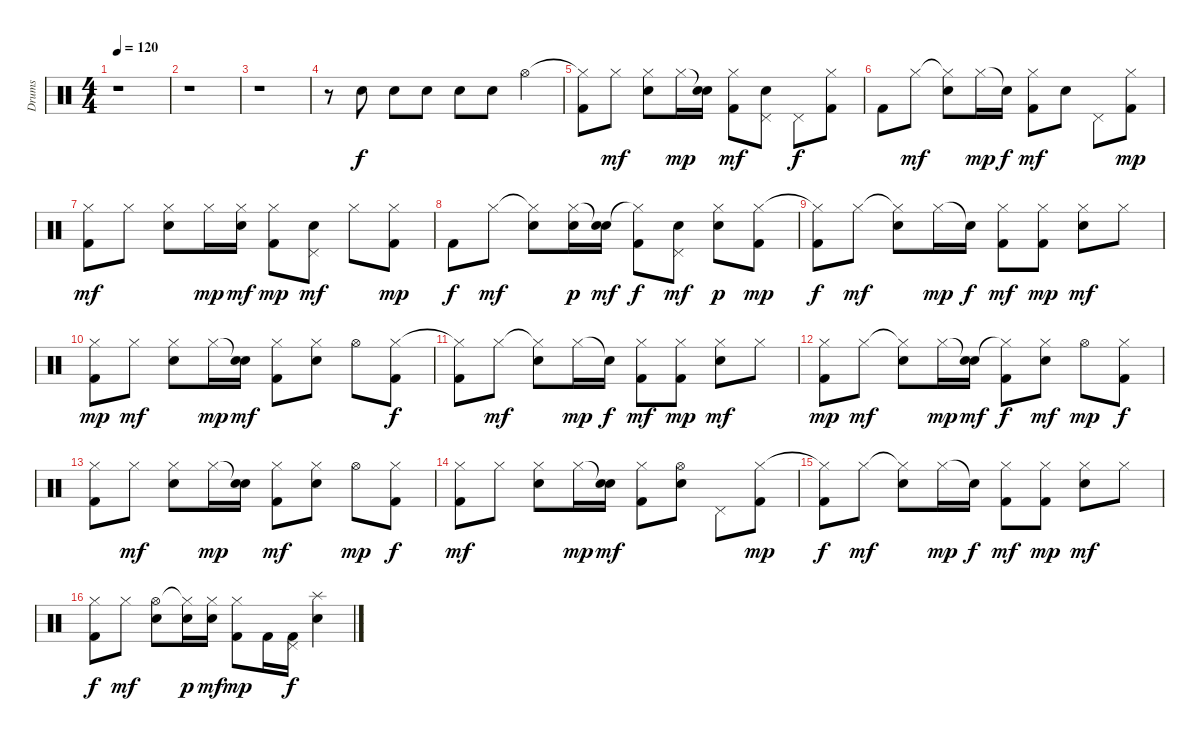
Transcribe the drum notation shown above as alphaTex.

\track ("Drums" "Drums") {instrument percussion}
\staff {score}
\articulation defaults
\ts (4 4)
\tempo 120
\clef neutral
\ks c
r.1{dy f} |
r.1 |
r.1 |
r.8 "Snare (hit) 2".8 "Snare (hit) 2".8 "Snare (hit) 2".8 "Snare (hit) 2".8 "Snare (hit) 2".8 "Hi-Hat (open)".4 |
("Hi-Hat (closed)"{t} "Kick (hit) 2").8 "Hi-Hat (closed)".8{dy mf} ("Hi-Hat (closed)" "Snare (hit) 2").8 "Hi-Hat (closed)".16{dy mp} ("Snare (hit)"{t} "Snare (hit) 2").16 ("Hi-Hat (closed)" "Kick (hit) 2").8{dy mf} ("Pedal Hi-Hat (hit)" "Snare (hit) 2").8 "Pedal Hi-Hat (hit)".8{dy f} ("Hi-Hat (closed)" "Kick (hit) 2").8 |
"Kick (hit) 2".8 "Hi-Hat (closed)".8{dy mf} ("Hi-Hat (closed)"{t} "Snare (hit) 2").8 "Hi-Hat (closed)".16{dy mp} "Snare (hit)"{t}.16{dy f} ("Hi-Hat (closed)" "Kick (hit) 2").8{dy mf} "Snare (hit) 2".8 "Pedal Hi-Hat (hit)".8 ("Hi-Hat (closed)" "Kick (hit) 2").8{dy mp} |
("Hi-Hat (closed)" "Kick (hit) 2").8{dy mf} "Hi-Hat (closed)".8 ("Hi-Hat (closed)" "Snare (hit) 2").8 "Hi-Hat (closed)".16{dy mp} ("Hi-Hat (closed)" "Snare (hit) 2").16{dy mf} ("Hi-Hat (closed)" "Kick (hit) 2").8{dy mp} ("Pedal Hi-Hat (hit)" "Snare (hit) 2").8{dy mf} "Hi-Hat (closed)".8 ("Hi-Hat (closed)" "Kick (hit) 2").8{dy mp} |
"Kick (hit) 2".8{dy f} "Hi-Hat (closed)".8{dy mf} ("Hi-Hat (closed)"{t} "Snare (hit) 2").8 ("Hi-Hat (closed)" "Snare (hit) 2").16{dy p} ("Snare (hit)"{t} "Snare (hit) 2").16{dy mf} ("Hi-Hat (closed)"{t} "Kick (hit) 2").8{dy f} ("Pedal Hi-Hat (hit)" "Snare (hit) 2").8{dy mf} ("Hi-Hat (closed)" "Snare (hit) 2").8{dy p} ("Hi-Hat (closed)" "Kick (hit) 2").8{dy mp} |
("Hi-Hat (closed)"{t} "Kick (hit) 2").8{dy f} "Hi-Hat (closed)".8{dy mf} ("Hi-Hat (closed)"{t} "Snare (hit) 2").8 "Hi-Hat (closed)".16{dy mp} "Snare (hit)"{t}.16{dy f} ("Hi-Hat (closed)" "Kick (hit) 2").8{dy mf} ("Hi-Hat (closed)" "Kick (hit) 2").8{dy mp} ("Hi-Hat (closed)" "Snare (hit) 2").8{dy mf} "Hi-Hat (closed)".8 |
("Hi-Hat (closed)" "Kick (hit) 2").8{dy mp} "Hi-Hat (closed)".8{dy mf} ("Hi-Hat (closed)" "Snare (hit) 2").8 "Hi-Hat (closed)".16{dy mp} ("Snare (hit)"{t} "Snare (hit) 2").16{dy mf} ("Hi-Hat (closed)" "Kick (hit) 2").8 ("Hi-Hat (closed)" "Snare (hit) 2").8 "Hi-Hat (open)".8 ("Hi-Hat (closed)" "Kick (hit) 2").8{dy f} |
("Hi-Hat (closed)"{t} "Kick (hit) 2").8 "Hi-Hat (closed)".8{dy mf} ("Hi-Hat (closed)"{t} "Snare (hit) 2").8 "Hi-Hat (closed)".16{dy mp} "Snare (hit)"{t}.16{dy f} ("Hi-Hat (closed)" "Kick (hit) 2").8{dy mf} ("Hi-Hat (closed)" "Kick (hit) 2").8{dy mp} ("Hi-Hat (closed)" "Snare (hit) 2").8{dy mf} "Hi-Hat (closed)".8 |
("Hi-Hat (closed)" "Kick (hit) 2").8{dy mp} "Hi-Hat (closed)".8{dy mf} ("Hi-Hat (closed)"{t} "Snare (hit) 2").8 "Hi-Hat (closed)".16{dy mp} ("Snare (hit)"{t} "Snare (hit) 2").16{dy mf} ("Hi-Hat (closed)"{t} "Kick (hit) 2").8{dy f} ("Hi-Hat (closed)" "Snare (hit) 2").8{dy mf} "Hi-Hat (open)".8{dy mp} ("Hi-Hat (closed)" "Kick (hit) 2").8{dy f} |
("Hi-Hat (closed)" "Kick (hit) 2").8 "Hi-Hat (closed)".8{dy mf} ("Hi-Hat (closed)" "Snare (hit) 2").8 "Hi-Hat (closed)".16{dy mp} ("Snare (hit)"{t} "Snare (hit) 2").16 ("Hi-Hat (closed)" "Kick (hit) 2").8{dy mf} ("Hi-Hat (closed)" "Snare (hit) 2").8 "Hi-Hat (open)".8{dy mp} ("Hi-Hat (closed)" "Kick (hit) 2").8{dy f} |
("Hi-Hat (closed)" "Kick (hit) 2").8{dy mf} "Hi-Hat (closed)".8 ("Hi-Hat (closed)" "Snare (hit) 2").8 "Hi-Hat (closed)".16{dy mp} ("Snare (hit)"{t} "Snare (hit) 2").16{dy mf} ("Hi-Hat (closed)" "Kick (hit) 2").8 ("Hi-Hat (open)" "Snare (hit) 2").8 "Pedal Hi-Hat (hit)".8 ("Hi-Hat (closed)" "Kick (hit) 2").8{dy mp} |
("Hi-Hat (closed)"{t} "Kick (hit) 2").8{dy f} "Hi-Hat (closed)".8{dy mf} ("Hi-Hat (closed)"{t} "Snare (hit) 2").8 "Hi-Hat (closed)".16{dy mp} "Snare (hit)"{t}.16{dy f} ("Hi-Hat (closed)" "Kick (hit) 2").8{dy mf} ("Hi-Hat (closed)" "Kick (hit) 2").8{dy mp} ("Hi-Hat (closed)" "Snare (hit) 2").8{dy mf} "Hi-Hat (closed)".8 |
("Hi-Hat (closed)" "Kick (hit) 2").8{dy f} "Hi-Hat (closed)".8{dy mf} ("Hi-Hat (open)" "Snare (hit) 2").8 ("Hi-Hat (closed)"{t} "Snare (hit) 2").16{dy p} ("Hi-Hat (closed)" "Snare (hit) 2").16{dy mf} ("Hi-Hat (closed)" "Kick (hit) 2").8{dy mp} "Kick (hit) 2".16 ("Pedal Hi-Hat (hit)" "Kick (hit) 2").16{dy f} ("Splash (hit)" "Snare (hit) 2").4
